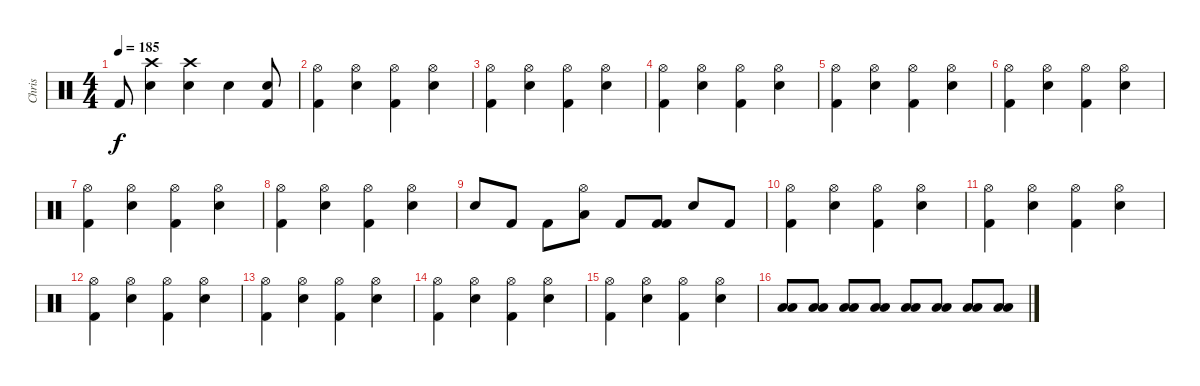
\track ("Chris" "Chris") {instrument percussion}
\staff {score}
\articulation defaults
\ts (4 4)
\tempo 185
\clef neutral
\ks c "Kick (hit) 2".8{dy f}
("Snare (hit) 2" "Crash high (hit)").4 ("Snare (hit) 2" "Crash high (hit)").4 "Snare (hit) 2".4 ("Snare (hit) 2" "Kick (hit) 2").8 |
("Hi-Hat (open)" "Kick (hit) 2").4 ("Snare (hit) 2" "Hi-Hat (open)").4 ("Hi-Hat (open)" "Kick (hit) 2").4 ("Snare (hit) 2" "Hi-Hat (open)").4 |
("Hi-Hat (open)" "Kick (hit) 2").4 ("Snare (hit) 2" "Hi-Hat (open)").4 ("Hi-Hat (open)" "Kick (hit) 2").4 ("Snare (hit) 2" "Hi-Hat (open)").4 |
("Hi-Hat (open)" "Kick (hit) 2").4 ("Snare (hit) 2" "Hi-Hat (open)").4 ("Hi-Hat (open)" "Kick (hit) 2").4 ("Snare (hit) 2" "Hi-Hat (open)").4 |
("Hi-Hat (open)" "Kick (hit) 2").4 ("Snare (hit) 2" "Hi-Hat (open)").4 ("Hi-Hat (open)" "Kick (hit) 2").4 ("Snare (hit) 2" "Hi-Hat (open)").4 |
("Hi-Hat (open)" "Kick (hit) 2").4 ("Snare (hit) 2" "Hi-Hat (open)").4 ("Hi-Hat (open)" "Kick (hit) 2").4 ("Snare (hit) 2" "Hi-Hat (open)").4 |
("Hi-Hat (open)" "Kick (hit) 2").4 ("Snare (hit) 2" "Hi-Hat (open)").4 ("Hi-Hat (open)" "Kick (hit) 2").4 ("Snare (hit) 2" "Hi-Hat (open)").4 |
("Hi-Hat (open)" "Kick (hit) 2").4 ("Snare (hit) 2" "Hi-Hat (open)").4 ("Hi-Hat (open)" "Kick (hit) 2").4 ("Snare (hit) 2" "Hi-Hat (open)").4 |
"Snare (hit) 2".8 "Kick (hit) 2".8 "Kick (hit) 2".8 ("Low Tom (hit)" "Hi-Hat (open)").8 "Kick (hit) 2".8 ("Kick (hit) 2" "Kick (hit) 2").8 "Snare (hit) 2".8 "Kick (hit) 2".8 |
("Hi-Hat (open)" "Kick (hit) 2").4 ("Snare (hit) 2" "Hi-Hat (open)").4 ("Hi-Hat (open)" "Kick (hit) 2").4 ("Snare (hit) 2" "Hi-Hat (open)").4 |
("Hi-Hat (open)" "Kick (hit) 2").4 ("Snare (hit) 2" "Hi-Hat (open)").4 ("Hi-Hat (open)" "Kick (hit) 2").4 ("Snare (hit) 2" "Hi-Hat (open)").4 |
("Hi-Hat (open)" "Kick (hit) 2").4 ("Snare (hit) 2" "Hi-Hat (open)").4 ("Hi-Hat (open)" "Kick (hit) 2").4 ("Snare (hit) 2" "Hi-Hat (open)").4 |
("Hi-Hat (open)" "Kick (hit) 2").4 ("Snare (hit) 2" "Hi-Hat (open)").4 ("Hi-Hat (open)" "Kick (hit) 2").4 ("Snare (hit) 2" "Hi-Hat (open)").4 |
("Hi-Hat (open)" "Kick (hit) 2").4 ("Snare (hit) 2" "Hi-Hat (open)").4 ("Hi-Hat (open)" "Kick (hit) 2").4 ("Snare (hit) 2" "Hi-Hat (open)").4 |
("Hi-Hat (open)" "Kick (hit) 2").4 ("Snare (hit) 2" "Hi-Hat (open)").4 ("Hi-Hat (open)" "Kick (hit) 2").4 ("Snare (hit) 2" "Hi-Hat (open)").4 |
("Low Floor Tom (hit)" "Low Tom (hit)").8 ("Low Floor Tom (hit)" "Low Tom (hit)").8 ("Low Floor Tom (hit)" "Low Tom (hit)").8 ("Low Floor Tom (hit)" "Low Tom (hit)").8 ("Low Floor Tom (hit)" "Low Tom (hit)").8 ("Low Floor Tom (hit)" "Low Tom (hit)").8 ("Low Floor Tom (hit)" "Low Tom (hit)").8 ("Low Floor Tom (hit)" "Low Tom (hit)").8
